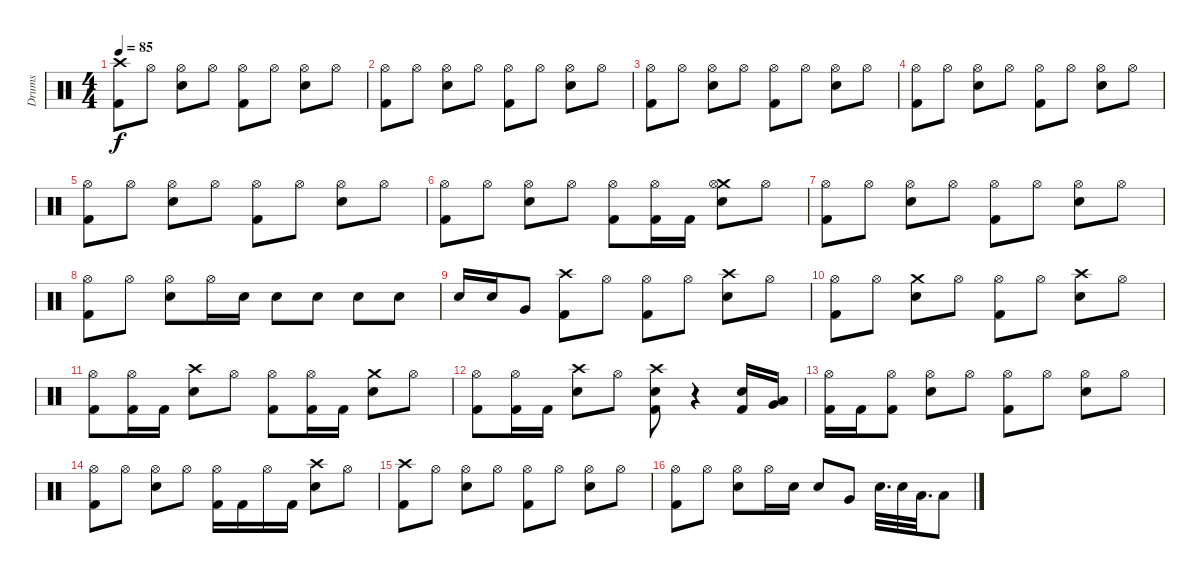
\track ("Drums" "Drums") {instrument percussion}
\staff {score}
\articulation defaults
\ts (4 4)
\tempo 85
\clef neutral
\ks c
("Crash high (hit)" "Kick (hit) 2").8{dy f} "Hi-Hat (open)".8 ("Snare (hit) 2" "Hi-Hat (open)").8 "Hi-Hat (open)".8 ("Kick (hit) 2" "Hi-Hat (open)").8 "Hi-Hat (open)".8 ("Snare (hit) 2" "Hi-Hat (open)").8 "Hi-Hat (open)".8 |
("Kick (hit) 2" "Hi-Hat (open)").8 "Hi-Hat (open)".8 ("Snare (hit) 2" "Hi-Hat (open)").8 "Hi-Hat (open)".8 ("Kick (hit) 2" "Hi-Hat (open)").8 "Hi-Hat (open)".8 ("Snare (hit) 2" "Hi-Hat (open)").8 "Hi-Hat (open)".8 |
("Kick (hit) 2" "Hi-Hat (open)").8 "Hi-Hat (open)".8 ("Hi-Hat (open)" "Snare (hit) 2").8 "Hi-Hat (open)".8 ("Hi-Hat (open)" "Kick (hit) 2").8 "Hi-Hat (open)".8 ("Snare (hit) 2" "Hi-Hat (open)").8 "Hi-Hat (open)".8 |
("Kick (hit) 2" "Hi-Hat (open)").8 "Hi-Hat (open)".8 ("Snare (hit) 2" "Hi-Hat (open)").8 "Hi-Hat (open)".8 ("Kick (hit) 2" "Hi-Hat (open)").8 "Hi-Hat (open)".8 ("Snare (hit) 2" "Hi-Hat (open)").8 "Hi-Hat (open)".8 |
("Kick (hit) 2" "Hi-Hat (open)").8 "Hi-Hat (open)".8 ("Snare (hit) 2" "Hi-Hat (open)").8 "Hi-Hat (open)".8 ("Kick (hit) 2" "Hi-Hat (open)").8 "Hi-Hat (open)".8 ("Snare (hit) 2" "Hi-Hat (open)").8 "Hi-Hat (open)".8 |
("Kick (hit) 2" "Hi-Hat (open)").8 "Hi-Hat (open)".8 ("Snare (hit) 2" "Hi-Hat (open)").8 "Hi-Hat (open)".8 ("Kick (hit) 2" "Hi-Hat (open)").8 ("Kick (hit) 2" "Hi-Hat (open)").16 "Kick (hit) 2".16 ("Crash medium (hit)" "Hi-Hat (open)" "Snare (hit) 2").8 "Hi-Hat (open)".8 |
("Kick (hit) 2" "Hi-Hat (open)").8 "Hi-Hat (open)".8 ("Snare (hit) 2" "Hi-Hat (open)").8 "Hi-Hat (open)".8 ("Kick (hit) 2" "Hi-Hat (open)").8 "Hi-Hat (open)".8 ("Snare (hit) 2" "Hi-Hat (open)").8 "Hi-Hat (open)".8 |
("Hi-Hat (open)" "Kick (hit) 2").8 "Hi-Hat (open)".8 ("Hi-Hat (open)" "Snare (hit) 2").8 "Hi-Hat (open)".16 "Snare (hit) 2".16 "Snare (hit) 2".8 "Snare (hit) 2".8 "Snare (hit) 2".8 "Snare (hit) 2".8 |
"Snare (hit) 2".16 "Snare (hit) 2".16 "Very Low Tom (hit)".8 ("Crash high (hit)" "Kick (hit) 2").8 "Hi-Hat (open)".8 ("Kick (hit) 2" "Hi-Hat (open)").8 "Hi-Hat (open)".8 ("Crash high (hit)" "Snare (hit) 2").8 "Hi-Hat (open)".8 |
("Kick (hit) 2" "Hi-Hat (open)").8 "Hi-Hat (open)".8 ("Snare (hit) 2" "Crash medium (hit)").8 "Hi-Hat (open)".8 ("Kick (hit) 2" "Hi-Hat (open)").8 "Hi-Hat (open)".8 ("Crash high (hit)" "Snare (hit) 2").8 "Hi-Hat (open)".8 |
("Kick (hit) 2" "Hi-Hat (open)").8 ("Hi-Hat (open)" "Kick (hit) 2").16 "Kick (hit) 2".16 ("Crash high (hit)" "Snare (hit) 2").8 "Hi-Hat (open)".8 ("Kick (hit) 2" "Hi-Hat (open)").8 ("Hi-Hat (open)" "Kick (hit) 2").16 "Kick (hit) 2".16 ("Snare (hit) 2" "Crash medium (hit)").8 "Hi-Hat (open)".8 |
("Kick (hit) 2" "Hi-Hat (open)").8 ("Hi-Hat (open)" "Kick (hit) 2").16 "Kick (hit) 2".16 ("Crash high (hit)" "Snare (hit) 2").8 "Hi-Hat (open)".8 ("Snare (hit) 2" "Crash high (hit)" "Kick (hit) 2").8 r.4 ("Kick (hit) 2" "Snare (hit) 2").16 ("Very Low Tom (hit)" "Low Tom (hit)").16 |
("Hi-Hat (open)" "Kick (hit) 2").16 "Kick (hit) 2".16 ("Kick (hit) 2" "Hi-Hat (open)").8 ("Snare (hit) 2" "Hi-Hat (open)").8 "Hi-Hat (open)".8 ("Hi-Hat (open)" "Kick (hit) 2").8 "Hi-Hat (open)".8 ("Hi-Hat (open)" "Snare (hit) 2").8 "Hi-Hat (open)".8 |
("Hi-Hat (open)" "Kick (hit) 2").8 "Hi-Hat (open)".8 ("Snare (hit) 2" "Hi-Hat (open)").8 "Hi-Hat (open)".8 ("Hi-Hat (open)" "Kick (hit) 2").16 "Kick (hit) 2".16 "Hi-Hat (open)".16 "Kick (hit) 2".16 ("Crash high (hit)" "Snare (hit) 2").8 "Hi-Hat (open)".8 |
("Kick (hit) 2" "Crash high (hit)").8 "Hi-Hat (open)".8 ("Snare (hit) 2" "Hi-Hat (open)").8 "Hi-Hat (open)".8 ("Kick (hit) 2" "Hi-Hat (open)").8 "Hi-Hat (open)".8 ("Snare (hit) 2" "Hi-Hat (open)").8 "Hi-Hat (open)".8 |
("Kick (hit) 2" "Hi-Hat (open)").8 "Hi-Hat (open)".8 ("Snare (hit) 2" "Hi-Hat (open)").8 "Hi-Hat (open)".16 "Snare (hit) 2".16 "Snare (hit) 2".8 "Very Low Tom (hit)".8 "Snare (hit) 2".32{d} "Snare (hit) 2".32 "Low Tom (hit)".32{d} "Low Floor Tom (hit)".8
